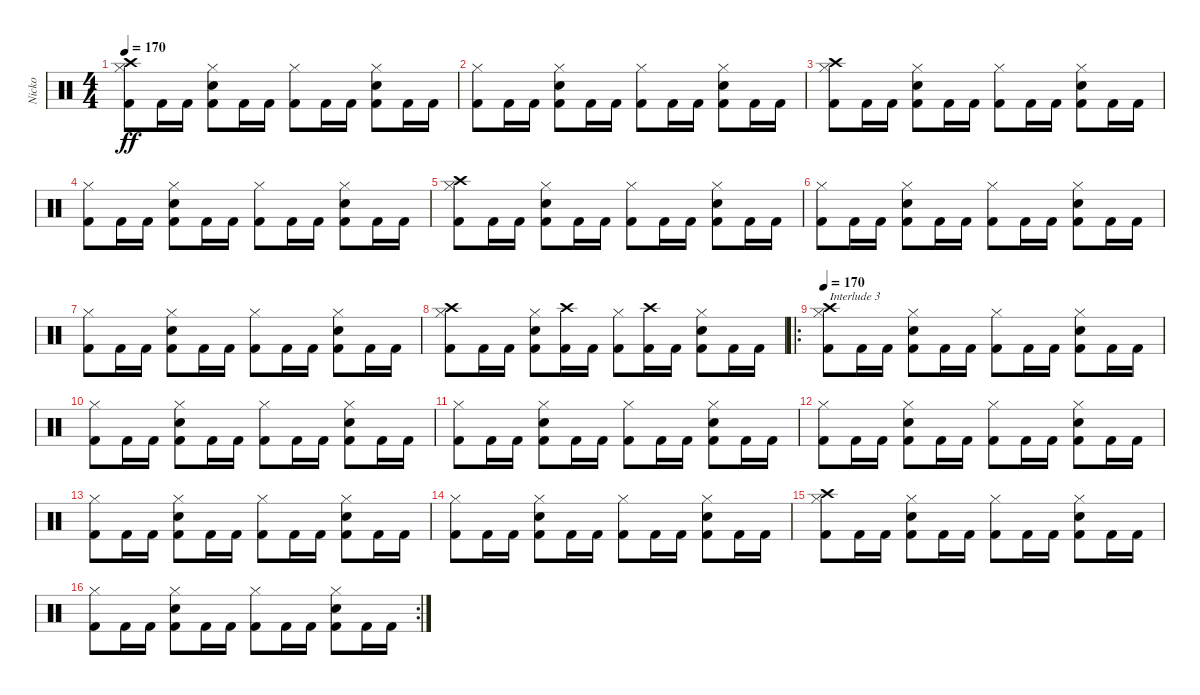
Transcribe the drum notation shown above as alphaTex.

\track ("Nicko" "Nicko") {instrument percussion}
\staff {score}
\articulation defaults
\ts (4 4)
\tempo 170
\clef neutral
\ks c
("Crash high (hit)" "Hi-Hat (closed)" "Kick (hit) 2").8{dy ff} "Kick (hit) 2".16 "Kick (hit) 2".16 ("Hi-Hat (closed)" "Snare (hit) 2" "Kick (hit) 2").8 "Kick (hit) 2".16 "Kick (hit) 2".16 ("Hi-Hat (closed)" "Kick (hit) 2").8 "Kick (hit) 2".16 "Kick (hit) 2".16 ("Hi-Hat (closed)" "Snare (hit) 2" "Kick (hit) 2").8 "Kick (hit) 2".16 "Kick (hit) 2".16 |
("Hi-Hat (closed)" "Kick (hit) 2").8 "Kick (hit) 2".16 "Kick (hit) 2".16 ("Hi-Hat (closed)" "Snare (hit) 2" "Kick (hit) 2").8 "Kick (hit) 2".16 "Kick (hit) 2".16 ("Hi-Hat (closed)" "Kick (hit) 2").8 "Kick (hit) 2".16 "Kick (hit) 2".16 ("Hi-Hat (closed)" "Snare (hit) 2" "Kick (hit) 2").8 "Kick (hit) 2".16 "Kick (hit) 2".16 |
("Crash high (hit)" "Hi-Hat (closed)" "Kick (hit) 2").8 "Kick (hit) 2".16 "Kick (hit) 2".16 ("Hi-Hat (closed)" "Snare (hit) 2" "Kick (hit) 2").8 "Kick (hit) 2".16 "Kick (hit) 2".16 ("Hi-Hat (closed)" "Kick (hit) 2").8 "Kick (hit) 2".16 "Kick (hit) 2".16 ("Hi-Hat (closed)" "Snare (hit) 2" "Kick (hit) 2").8 "Kick (hit) 2".16 "Kick (hit) 2".16 |
("Hi-Hat (closed)" "Kick (hit) 2").8 "Kick (hit) 2".16 "Kick (hit) 2".16 ("Hi-Hat (closed)" "Snare (hit) 2" "Kick (hit) 2").8 "Kick (hit) 2".16 "Kick (hit) 2".16 ("Hi-Hat (closed)" "Kick (hit) 2").8 "Kick (hit) 2".16 "Kick (hit) 2".16 ("Hi-Hat (closed)" "Snare (hit) 2" "Kick (hit) 2").8 "Kick (hit) 2".16 "Kick (hit) 2".16 |
("Crash high (hit)" "Hi-Hat (closed)" "Kick (hit) 2").8 "Kick (hit) 2".16 "Kick (hit) 2".16 ("Hi-Hat (closed)" "Snare (hit) 2" "Kick (hit) 2").8 "Kick (hit) 2".16 "Kick (hit) 2".16 ("Hi-Hat (closed)" "Kick (hit) 2").8 "Kick (hit) 2".16 "Kick (hit) 2".16 ("Hi-Hat (closed)" "Snare (hit) 2" "Kick (hit) 2").8 "Kick (hit) 2".16 "Kick (hit) 2".16 |
("Hi-Hat (closed)" "Kick (hit) 2").8 "Kick (hit) 2".16 "Kick (hit) 2".16 ("Hi-Hat (closed)" "Snare (hit) 2" "Kick (hit) 2").8 "Kick (hit) 2".16 "Kick (hit) 2".16 ("Hi-Hat (closed)" "Kick (hit) 2").8 "Kick (hit) 2".16 "Kick (hit) 2".16 ("Hi-Hat (closed)" "Snare (hit) 2" "Kick (hit) 2").8 "Kick (hit) 2".16 "Kick (hit) 2".16 |
("Hi-Hat (closed)" "Kick (hit) 2").8 "Kick (hit) 2".16 "Kick (hit) 2".16 ("Hi-Hat (closed)" "Snare (hit) 2" "Kick (hit) 2").8 "Kick (hit) 2".16 "Kick (hit) 2".16 ("Hi-Hat (closed)" "Kick (hit) 2").8 "Kick (hit) 2".16 "Kick (hit) 2".16 ("Hi-Hat (closed)" "Snare (hit) 2" "Kick (hit) 2").8 "Kick (hit) 2".16 "Kick (hit) 2".16 |
("Crash high (hit)" "Hi-Hat (closed)" "Kick (hit) 2").8 "Kick (hit) 2".16 "Kick (hit) 2".16 ("Hi-Hat (closed)" "Snare (hit) 2" "Kick (hit) 2").8 ("Crash high (hit)" "Kick (hit) 2").16 "Kick (hit) 2".16 ("Hi-Hat (closed)" "Kick (hit) 2").8 ("Crash high (hit)" "Kick (hit) 2").16 "Kick (hit) 2".16 ("Hi-Hat (closed)" "Snare (hit) 2" "Kick (hit) 2").8 "Kick (hit) 2".16 "Kick (hit) 2".16 |
\ro
\tempo 170
("Crash high (hit)" "Hi-Hat (closed)" "Kick (hit) 2").8{txt "Interlude 3"} "Kick (hit) 2".16 "Kick (hit) 2".16 ("Hi-Hat (closed)" "Snare (hit) 2" "Kick (hit) 2").8 "Kick (hit) 2".16 "Kick (hit) 2".16 ("Hi-Hat (closed)" "Kick (hit) 2").8 "Kick (hit) 2".16 "Kick (hit) 2".16 ("Hi-Hat (closed)" "Snare (hit) 2" "Kick (hit) 2").8 "Kick (hit) 2".16 "Kick (hit) 2".16 |
("Hi-Hat (closed)" "Kick (hit) 2").8 "Kick (hit) 2".16 "Kick (hit) 2".16 ("Hi-Hat (closed)" "Snare (hit) 2" "Kick (hit) 2").8 "Kick (hit) 2".16 "Kick (hit) 2".16 ("Hi-Hat (closed)" "Kick (hit) 2").8 "Kick (hit) 2".16 "Kick (hit) 2".16 ("Hi-Hat (closed)" "Snare (hit) 2" "Kick (hit) 2").8 "Kick (hit) 2".16 "Kick (hit) 2".16 |
("Hi-Hat (closed)" "Kick (hit) 2").8 "Kick (hit) 2".16 "Kick (hit) 2".16 ("Hi-Hat (closed)" "Snare (hit) 2" "Kick (hit) 2").8 "Kick (hit) 2".16 "Kick (hit) 2".16 ("Hi-Hat (closed)" "Kick (hit) 2").8 "Kick (hit) 2".16 "Kick (hit) 2".16 ("Hi-Hat (closed)" "Snare (hit) 2" "Kick (hit) 2").8 "Kick (hit) 2".16 "Kick (hit) 2".16 |
("Hi-Hat (closed)" "Kick (hit) 2").8 "Kick (hit) 2".16 "Kick (hit) 2".16 ("Hi-Hat (closed)" "Snare (hit) 2" "Kick (hit) 2").8 "Kick (hit) 2".16 "Kick (hit) 2".16 ("Hi-Hat (closed)" "Kick (hit) 2").8 "Kick (hit) 2".16 "Kick (hit) 2".16 ("Hi-Hat (closed)" "Snare (hit) 2" "Kick (hit) 2").8 "Kick (hit) 2".16 "Kick (hit) 2".16 |
("Hi-Hat (closed)" "Kick (hit) 2").8 "Kick (hit) 2".16 "Kick (hit) 2".16 ("Hi-Hat (closed)" "Snare (hit) 2" "Kick (hit) 2").8 "Kick (hit) 2".16 "Kick (hit) 2".16 ("Hi-Hat (closed)" "Kick (hit) 2").8 "Kick (hit) 2".16 "Kick (hit) 2".16 ("Hi-Hat (closed)" "Snare (hit) 2" "Kick (hit) 2").8 "Kick (hit) 2".16 "Kick (hit) 2".16 |
("Hi-Hat (closed)" "Kick (hit) 2").8 "Kick (hit) 2".16 "Kick (hit) 2".16 ("Hi-Hat (closed)" "Snare (hit) 2" "Kick (hit) 2").8 "Kick (hit) 2".16 "Kick (hit) 2".16 ("Hi-Hat (closed)" "Kick (hit) 2").8 "Kick (hit) 2".16 "Kick (hit) 2".16 ("Hi-Hat (closed)" "Snare (hit) 2" "Kick (hit) 2").8 "Kick (hit) 2".16 "Kick (hit) 2".16 |
("Crash high (hit)" "Hi-Hat (closed)" "Kick (hit) 2").8 "Kick (hit) 2".16 "Kick (hit) 2".16 ("Hi-Hat (closed)" "Snare (hit) 2" "Kick (hit) 2").8 "Kick (hit) 2".16 "Kick (hit) 2".16 ("Hi-Hat (closed)" "Kick (hit) 2").8 "Kick (hit) 2".16 "Kick (hit) 2".16 ("Hi-Hat (closed)" "Snare (hit) 2" "Kick (hit) 2").8 "Kick (hit) 2".16 "Kick (hit) 2".16 |
\rc 2
("Hi-Hat (closed)" "Kick (hit) 2").8 "Kick (hit) 2".16 "Kick (hit) 2".16 ("Hi-Hat (closed)" "Snare (hit) 2" "Kick (hit) 2").8 "Kick (hit) 2".16 "Kick (hit) 2".16 ("Hi-Hat (closed)" "Kick (hit) 2").8 "Kick (hit) 2".16 "Kick (hit) 2".16 ("Hi-Hat (closed)" "Snare (hit) 2" "Kick (hit) 2").8 "Kick (hit) 2".16 "Kick (hit) 2".16
